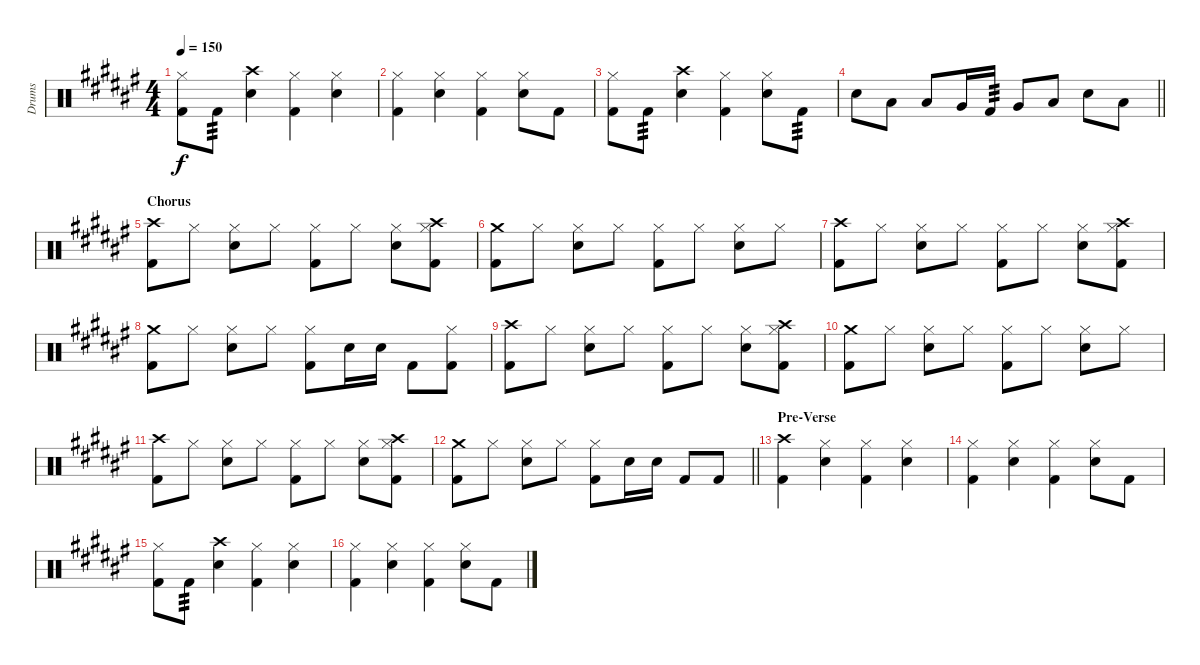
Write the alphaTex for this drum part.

\track ("Drums" "Drums") {instrument percussion}
\staff {score}
\articulation defaults
\ts (4 4)
\tempo 150
\clef neutral
\ks f#
("Hi-Hat (closed)" "Kick (hit) 2").8{dy f} "Kick (hit) 2".8{tp 3} ("Crash high (hit)" "Electric Snare (hit)").4 ("Hi-Hat (closed)" "Kick (hit) 2").4 ("Electric Snare (hit)" "Hi-Hat (closed)").4 |
("Hi-Hat (closed)" "Kick (hit) 2").4 ("Electric Snare (hit)" "Hi-Hat (closed)").4 ("Hi-Hat (closed)" "Kick (hit) 2").4 ("Electric Snare (hit)" "Hi-Hat (closed)").8 "Kick (hit) 2".8 |
("Hi-Hat (closed)" "Kick (hit) 2").8 "Kick (hit) 2".8{tp 3} ("Crash high (hit)" "Electric Snare (hit)").4 ("Hi-Hat (closed)" "Kick (hit) 2").4 ("Electric Snare (hit)" "Hi-Hat (closed)").8 "Kick (hit) 2".8{tp 3} |
\barLineRight lightlight "Electric Snare (hit)".8 "Low Tom (hit)".8 "Low Tom (hit)".8 "Very Low Tom (hit)".16 "Kick (hit) 2".16{tp 3} "Very Low Tom (hit)".8 "Low Floor Tom (hit)".8 "Electric Snare (hit)".8 "Low Floor Tom (hit)".8
|
\section ("" "Chorus")
("Crash high (hit)" "Kick (hit) 2").8 "Hi-Hat (closed)".8 ("Electric Snare (hit)" "Hi-Hat (closed)").8 "Hi-Hat (closed)".8 ("Hi-Hat (closed)" "Kick (hit) 2").8 "Hi-Hat (closed)".8 ("Electric Snare (hit)" "Hi-Hat (closed)").8 ("Crash high (hit)" "Hi-Hat (closed)" "Kick (hit) 2").8 |
("Crash medium (hit)" "Kick (hit) 2").8 "Hi-Hat (closed)".8 ("Electric Snare (hit)" "Hi-Hat (closed)").8 "Hi-Hat (closed)".8 ("Hi-Hat (closed)" "Kick (hit) 2").8 "Hi-Hat (closed)".8 ("Electric Snare (hit)" "Hi-Hat (closed)").8 "Hi-Hat (closed)".8 |
("Crash high (hit)" "Kick (hit) 2").8 "Hi-Hat (closed)".8 ("Electric Snare (hit)" "Hi-Hat (closed)").8 "Hi-Hat (closed)".8 ("Hi-Hat (closed)" "Kick (hit) 2").8 "Hi-Hat (closed)".8 ("Electric Snare (hit)" "Hi-Hat (closed)").8 ("Crash high (hit)" "Hi-Hat (closed)" "Kick (hit) 2").8 |
("Crash medium (hit)" "Kick (hit) 2").8 "Hi-Hat (closed)".8 ("Electric Snare (hit)" "Hi-Hat (closed)").8 "Hi-Hat (closed)".8 ("Hi-Hat (closed)" "Kick (hit) 2").8 "Electric Snare (hit)".16 "Electric Snare (hit)".16 "Kick (hit) 2".8 ("Hi-Hat (closed)" "Kick (hit) 2").8 |
("Crash high (hit)" "Kick (hit) 2").8 "Hi-Hat (closed)".8 ("Electric Snare (hit)" "Hi-Hat (closed)").8 "Hi-Hat (closed)".8 ("Hi-Hat (closed)" "Kick (hit) 2").8 "Hi-Hat (closed)".8 ("Electric Snare (hit)" "Hi-Hat (closed)").8 ("Crash high (hit)" "Hi-Hat (closed)" "Kick (hit) 2").8 |
("Crash medium (hit)" "Kick (hit) 2").8 "Hi-Hat (closed)".8 ("Electric Snare (hit)" "Hi-Hat (closed)").8 "Hi-Hat (closed)".8 ("Hi-Hat (closed)" "Kick (hit) 2").8 "Hi-Hat (closed)".8 ("Electric Snare (hit)" "Hi-Hat (closed)").8 "Hi-Hat (closed)".8 |
("Crash high (hit)" "Kick (hit) 2").8 "Hi-Hat (closed)".8 ("Electric Snare (hit)" "Hi-Hat (closed)").8 "Hi-Hat (closed)".8 ("Hi-Hat (closed)" "Kick (hit) 2").8 "Hi-Hat (closed)".8 ("Electric Snare (hit)" "Hi-Hat (closed)").8 ("Crash high (hit)" "Hi-Hat (closed)" "Kick (hit) 2").8 |
\barLineRight lightlight
("Crash medium (hit)" "Kick (hit) 2").8 "Hi-Hat (closed)".8 ("Electric Snare (hit)" "Hi-Hat (closed)").8 "Hi-Hat (closed)".8 ("Hi-Hat (closed)" "Kick (hit) 2").8 "Electric Snare (hit)".16 "Electric Snare (hit)".16 "Kick (hit) 2".8 "Kick (hit) 2".8 |
\section ("" "Pre-Verse")
("Crash high (hit)" "Kick (hit) 2").4 ("Electric Snare (hit)" "Hi-Hat (closed)").4 ("Hi-Hat (closed)" "Kick (hit) 2").4 ("Electric Snare (hit)" "Hi-Hat (closed)").4 |
("Hi-Hat (closed)" "Kick (hit) 2").4 ("Electric Snare (hit)" "Hi-Hat (closed)").4 ("Hi-Hat (closed)" "Kick (hit) 2").4 ("Electric Snare (hit)" "Hi-Hat (closed)").8 "Kick (hit) 2".8 |
("Hi-Hat (closed)" "Kick (hit) 2").8 "Kick (hit) 2".8{tp 3} ("Crash high (hit)" "Electric Snare (hit)").4 ("Hi-Hat (closed)" "Kick (hit) 2").4 ("Electric Snare (hit)" "Hi-Hat (closed)").4 |
("Hi-Hat (closed)" "Kick (hit) 2").4 ("Electric Snare (hit)" "Hi-Hat (closed)").4 ("Hi-Hat (closed)" "Kick (hit) 2").4 ("Electric Snare (hit)" "Hi-Hat (closed)").8 "Kick (hit) 2".8
